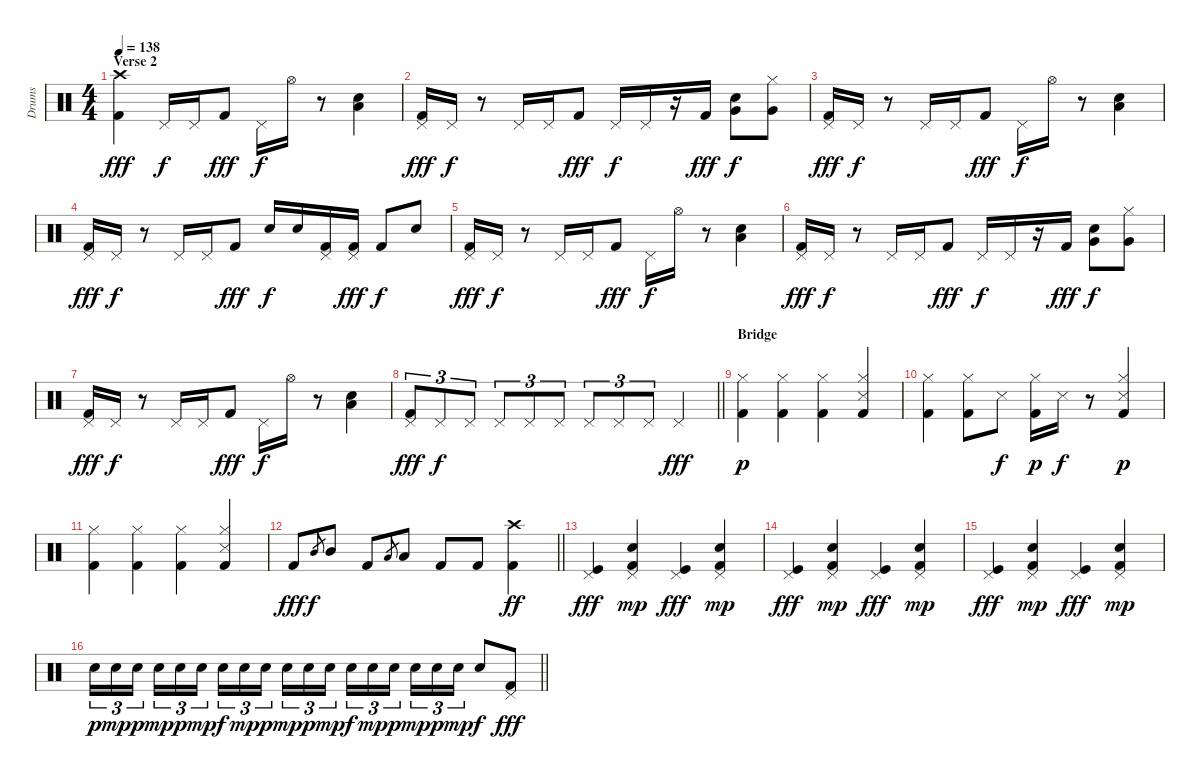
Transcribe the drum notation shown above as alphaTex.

\track ("Drums" "Drums") {instrument percussion}
\staff {score}
\articulation defaults
\ts (4 4)
\section ("" "Verse 2")
\tempo 138
\clef neutral
\ks c
("Crash high (hit)" "Kick (hit) 2").4{dy fff} "Pedal Hi-Hat (hit)".16{dy f} "Pedal Hi-Hat (hit)".16 "Kick (hit) 2".8{dy fff} "Pedal Hi-Hat (hit)".16{dy f} "Hi-Hat (open)".16 r.8 ("Electric Snare (hit)" "Low Tom (hit)").4 |
("Pedal Hi-Hat (hit)" "Kick (hit) 2").16{dy fff} "Pedal Hi-Hat (hit)".16{dy f} r.8 "Pedal Hi-Hat (hit)".16 "Pedal Hi-Hat (hit)".16 "Kick (hit) 2".8{dy fff} "Pedal Hi-Hat (hit)".16{dy f} "Pedal Hi-Hat (hit)".16 r.16 "Kick (hit) 2".16{dy fff} ("Electric Snare (hit)" "Very Low Tom (hit)").8{dy f} ("Hi-Hat (closed)" "Very Low Tom (hit)").8 |
("Pedal Hi-Hat (hit)" "Kick (hit) 2").16{dy fff} "Pedal Hi-Hat (hit)".16{dy f} r.8 "Pedal Hi-Hat (hit)".16 "Pedal Hi-Hat (hit)".16 "Kick (hit) 2".8{dy fff} "Pedal Hi-Hat (hit)".16{dy f} "Hi-Hat (open)".16 r.8 ("Electric Snare (hit)" "Low Tom (hit)").4 |
("Pedal Hi-Hat (hit)" "Kick (hit) 2").16{dy fff} "Pedal Hi-Hat (hit)".16{dy f} r.8 "Pedal Hi-Hat (hit)".16 "Pedal Hi-Hat (hit)".16 "Kick (hit) 2".8{dy fff} "Electric Snare (hit)".16{dy f} "Electric Snare (hit)".16 ("Pedal Hi-Hat (hit)" "Kick (hit) 2").16 ("Pedal Hi-Hat (hit)" "Kick (hit) 2").16{dy fff} "Kick (hit) 2".8{dy f} "Electric Snare (hit)".8 |
("Pedal Hi-Hat (hit)" "Kick (hit) 2").16{dy fff} "Pedal Hi-Hat (hit)".16{dy f} r.8 "Pedal Hi-Hat (hit)".16 "Pedal Hi-Hat (hit)".16 "Kick (hit) 2".8{dy fff} "Pedal Hi-Hat (hit)".16{dy f} "Hi-Hat (open)".16 r.8 ("Electric Snare (hit)" "Low Tom (hit)").4 |
("Pedal Hi-Hat (hit)" "Kick (hit) 2").16{dy fff} "Pedal Hi-Hat (hit)".16{dy f} r.8 "Pedal Hi-Hat (hit)".16 "Pedal Hi-Hat (hit)".16 "Kick (hit) 2".8{dy fff} "Pedal Hi-Hat (hit)".16{dy f} "Pedal Hi-Hat (hit)".16 r.16 "Kick (hit) 2".16{dy fff} ("Electric Snare (hit)" "Very Low Tom (hit)").8{dy f} ("Hi-Hat (closed)" "Very Low Tom (hit)").8 |
("Pedal Hi-Hat (hit)" "Kick (hit) 2").16{dy fff} "Pedal Hi-Hat (hit)".16{dy f} r.8 "Pedal Hi-Hat (hit)".16 "Pedal Hi-Hat (hit)".16 "Kick (hit) 2".8{dy fff} "Pedal Hi-Hat (hit)".16{dy f} "Hi-Hat (open)".16 r.8 ("Electric Snare (hit)" "Low Tom (hit)").4 |
\barLineRight lightlight
("Pedal Hi-Hat (hit)" "Kick (hit) 2").8{tu (3 2) dy fff} "Pedal Hi-Hat (hit)".8{tu (3 2) dy f} "Pedal Hi-Hat (hit)".8{tu (3 2)} "Pedal Hi-Hat (hit)".8{tu (3 2)} "Pedal Hi-Hat (hit)".8{tu (3 2)} "Pedal Hi-Hat (hit)".8{tu (3 2)} "Pedal Hi-Hat (hit)".8{tu (3 2)} "Pedal Hi-Hat (hit)".8{tu (3 2)} "Pedal Hi-Hat (hit)".8{tu (3 2)} "Pedal Hi-Hat (hit)".4{dy fff} |
\section ("" "Bridge")
("Hi-Hat (closed)" "Kick (hit) 2").4{dy p} ("Hi-Hat (closed)" "Kick (hit) 2").4 ("Hi-Hat (closed)" "Kick (hit) 2").4 ("Hi-Hat (closed)" "Metronome (hit)" "Kick (hit) 2").4 |
("Hi-Hat (closed)" "Kick (hit) 2").4 ("Hi-Hat (closed)" "Kick (hit) 2").8 "Metronome (hit)".8{dy f} ("Hi-Hat (closed)" "Kick (hit) 2").16{dy p} "Metronome (hit)".16{dy f} r.8 ("Hi-Hat (closed)" "Metronome (hit)" "Kick (hit) 2").4{dy p} |
("Hi-Hat (closed)" "Kick (hit) 2").4 ("Hi-Hat (closed)" "Kick (hit) 2").4 ("Hi-Hat (closed)" "Kick (hit) 2").4 ("Hi-Hat (closed)" "Metronome (hit)" "Kick (hit) 2").4 |
\barLineRight lightlight "Kick (hit) 2".8{dy fff} "Mid Tom (hit)".8{gr dy f} "Mid Tom (hit)".8 "Kick (hit) 2".8 "Low Tom (hit)".8{gr} "Low Tom (hit)".8 "Kick (hit) 2".8 "Kick (hit) 2".8
("Crash high (hit)" "Kick (hit) 2").4{dy ff} |
("Pedal Hi-Hat (hit)" "Kick (hit)").4{dy fff} ("Pedal Hi-Hat (hit)" "Electric Snare (hit)" "Kick (hit) 2").4{dy mp} ("Pedal Hi-Hat (hit)" "Kick (hit)").4{dy fff} ("Pedal Hi-Hat (hit)" "Electric Snare (hit)" "Kick (hit) 2").4{dy mp} |
("Pedal Hi-Hat (hit)" "Kick (hit)").4{dy fff} ("Pedal Hi-Hat (hit)" "Electric Snare (hit)" "Kick (hit) 2").4{dy mp} ("Pedal Hi-Hat (hit)" "Kick (hit)").4{dy fff} ("Pedal Hi-Hat (hit)" "Electric Snare (hit)" "Kick (hit) 2").4{dy mp} |
("Pedal Hi-Hat (hit)" "Kick (hit)").4{dy fff} ("Pedal Hi-Hat (hit)" "Electric Snare (hit)" "Kick (hit) 2").4{dy mp} ("Pedal Hi-Hat (hit)" "Kick (hit)").4{dy fff} ("Pedal Hi-Hat (hit)" "Electric Snare (hit)" "Kick (hit) 2").4{dy mp} |
\barLineRight lightlight "Electric Snare (hit)".16{tu (3 2) dy p} "Electric Snare (hit)".16{tu (3 2) dy mp} "Electric Snare (hit)".16{tu (3 2) dy p beam splitsecondary} "Electric Snare (hit)".16{tu (3 2) dy mp} "Electric Snare (hit)".16{tu (3 2) dy p} "Electric Snare (hit)".16{tu (3 2) dy mp} "Electric Snare (hit)".16{tu (3 2) dy f} "Electric Snare (hit)".16{tu (3 2) dy mp} "Electric Snare (hit)".16{tu (3 2) dy p beam splitsecondary} "Electric Snare (hit)".16{tu (3 2) dy mp} "Electric Snare (hit)".16{tu (3 2) dy p} "Electric Snare (hit)".16{tu (3 2) dy mp} "Electric Snare (hit)".16{tu (3 2) dy f} "Electric Snare (hit)".16{tu (3 2) dy mp} "Electric Snare (hit)".16{tu (3 2) dy p beam splitsecondary} "Electric Snare (hit)".16{tu (3 2) dy mp} "Electric Snare (hit)".16{tu (3 2) dy p} "Electric Snare (hit)".16{tu (3 2) dy mp} "Electric Snare (hit)".8{dy f}
("Pedal Hi-Hat (hit)" "Kick (hit) 2").8{dy fff}
